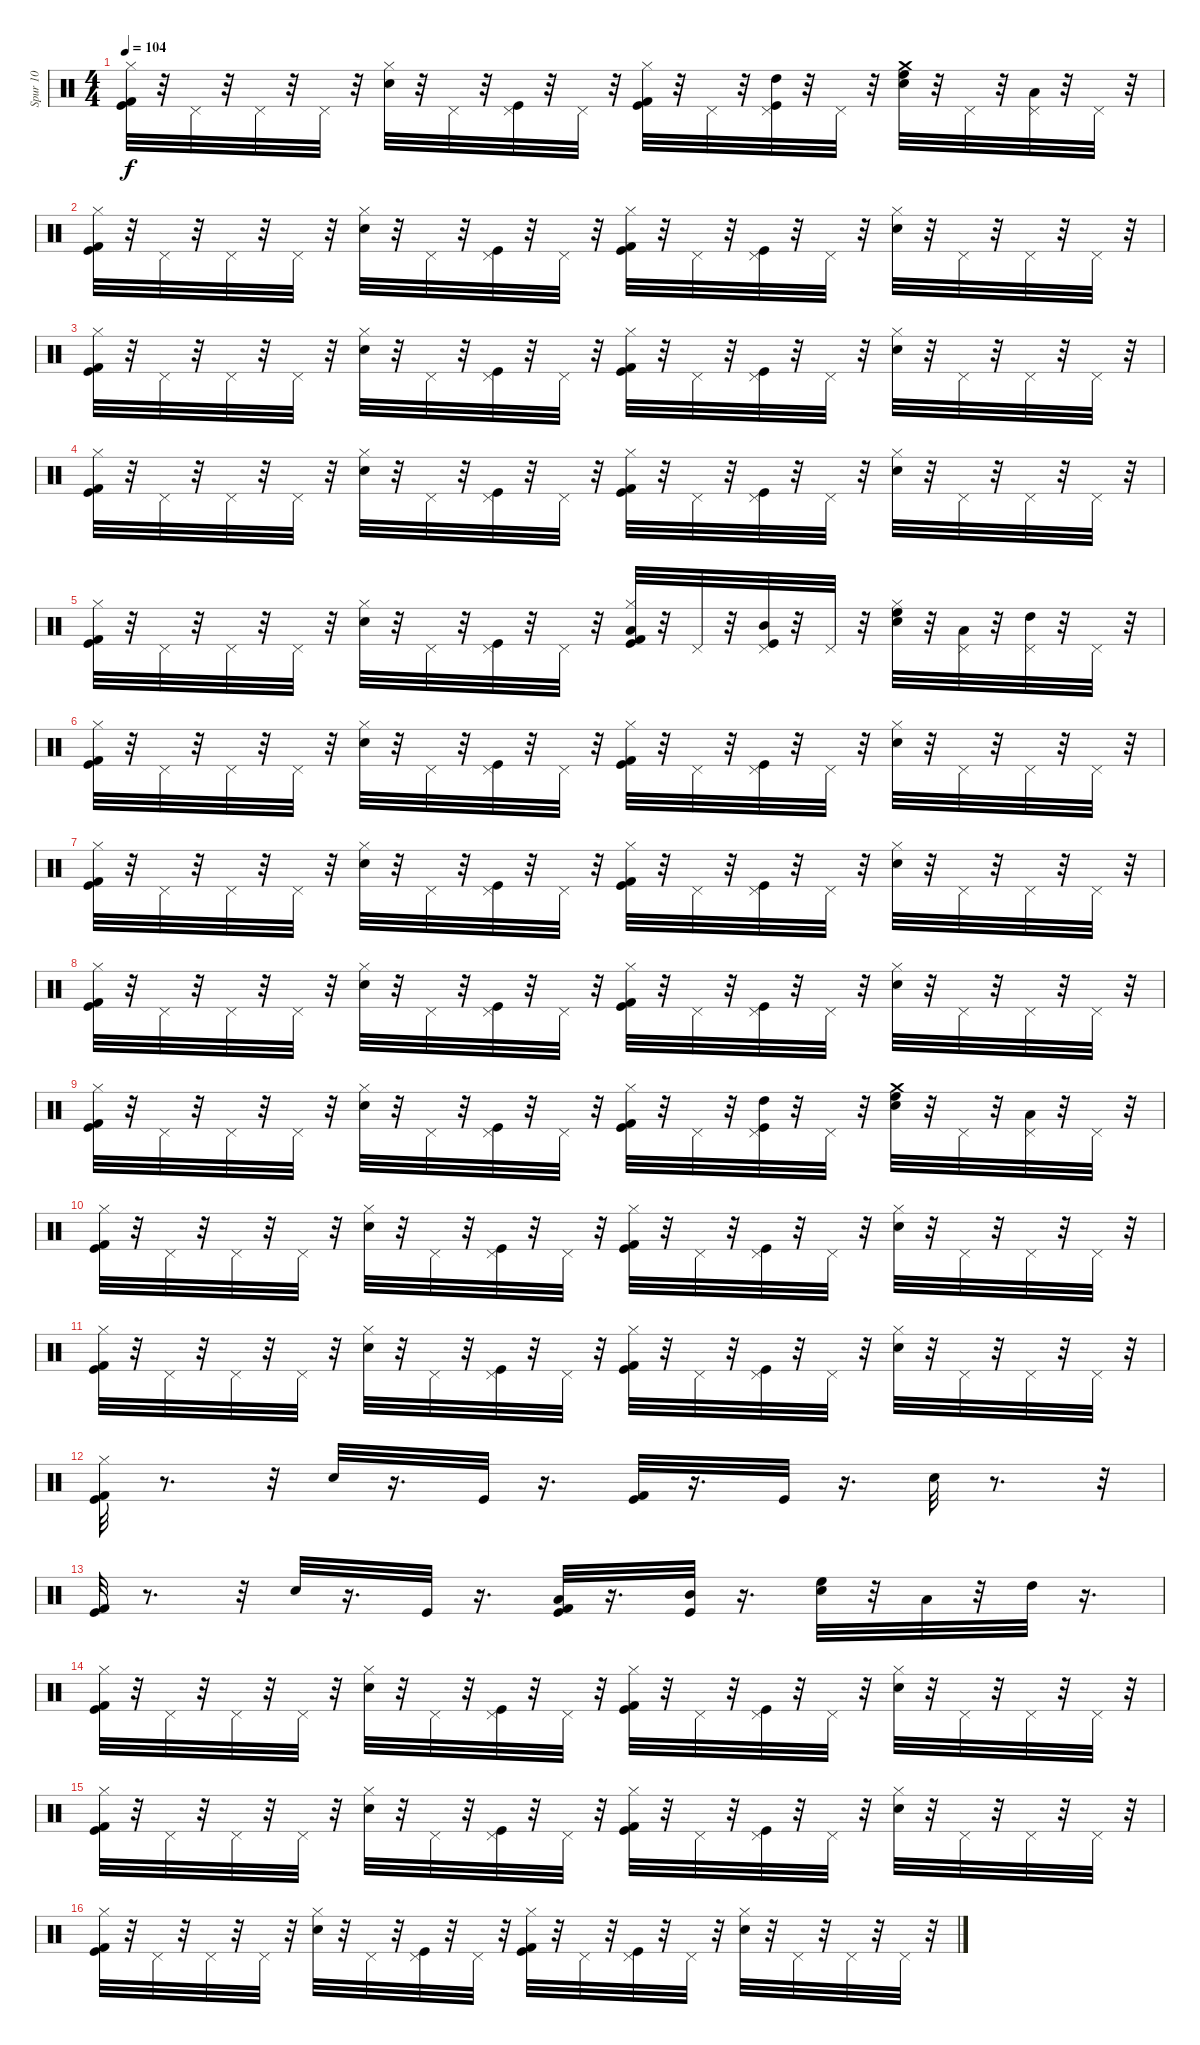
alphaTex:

\track ("Spur 10" "Spur 10") {instrument percussion}
\staff {score}
\articulation defaults
\ts (4 4)
\tempo 104
\clef neutral
\ks c
("Kick (hit) 2" "Kick (hit)" "Hi-Hat (closed)").32{dy f} r.32 "Pedal Hi-Hat (hit)".32 r.32 "Pedal Hi-Hat (hit)".32 r.32 "Pedal Hi-Hat (hit)".32 r.32 ("Electric Snare (hit)" "Hi-Hat (closed)").32 r.32 "Pedal Hi-Hat (hit)".32 r.32 ("Kick (hit)" "Pedal Hi-Hat (hit)").32 r.32 "Pedal Hi-Hat (hit)".32 r.32 ("Hi-Hat (closed)" "Kick (hit) 2" "Kick (hit)").32 r.32 "Pedal Hi-Hat (hit)".32 r.32 ("Kick (hit)" "Pedal Hi-Hat (hit)" "High Tom (hit)").32 r.32 "Pedal Hi-Hat (hit)".32 r.32 ("High Floor Tom (hit)" "Crash medium (hit)" "Electric Snare (hit)").32 r.32 "Pedal Hi-Hat (hit)".32 r.32 ("Low Tom (hit)" "Pedal Hi-Hat (hit)").32 r.32 "Pedal Hi-Hat (hit)".32 r.32 |
("Hi-Hat (closed)" "Kick (hit)" "Kick (hit) 2").32 r.32 "Pedal Hi-Hat (hit)".32 r.32 "Pedal Hi-Hat (hit)".32 r.32 "Pedal Hi-Hat (hit)".32 r.32 ("Hi-Hat (closed)" "Electric Snare (hit)").32 r.32 "Pedal Hi-Hat (hit)".32 r.32 ("Pedal Hi-Hat (hit)" "Kick (hit)").32 r.32 "Pedal Hi-Hat (hit)".32 r.32 ("Kick (hit) 2" "Kick (hit)" "Hi-Hat (closed)").32 r.32 "Pedal Hi-Hat (hit)".32 r.32 ("Pedal Hi-Hat (hit)" "Kick (hit)").32 r.32 "Pedal Hi-Hat (hit)".32 r.32 ("Hi-Hat (closed)" "Electric Snare (hit)").32 r.32 "Pedal Hi-Hat (hit)".32 r.32 "Pedal Hi-Hat (hit)".32 r.32 "Pedal Hi-Hat (hit)".32 r.32 |
("Kick (hit) 2" "Kick (hit)" "Hi-Hat (closed)").32 r.32 "Pedal Hi-Hat (hit)".32 r.32 "Pedal Hi-Hat (hit)".32 r.32 "Pedal Hi-Hat (hit)".32 r.32 ("Electric Snare (hit)" "Hi-Hat (closed)").32 r.32 "Pedal Hi-Hat (hit)".32 r.32 ("Kick (hit)" "Pedal Hi-Hat (hit)").32 r.32 "Pedal Hi-Hat (hit)".32 r.32 ("Hi-Hat (closed)" "Kick (hit) 2" "Kick (hit)").32 r.32 "Pedal Hi-Hat (hit)".32 r.32 ("Kick (hit)" "Pedal Hi-Hat (hit)").32 r.32 "Pedal Hi-Hat (hit)".32 r.32 ("Hi-Hat (closed)" "Electric Snare (hit)").32 r.32 "Pedal Hi-Hat (hit)".32 r.32 "Pedal Hi-Hat (hit)".32 r.32 "Pedal Hi-Hat (hit)".32 r.32 |
("Hi-Hat (closed)" "Kick (hit) 2" "Kick (hit)").32 r.32 "Pedal Hi-Hat (hit)".32 r.32 "Pedal Hi-Hat (hit)".32 r.32 "Pedal Hi-Hat (hit)".32 r.32 ("Hi-Hat (closed)" "Electric Snare (hit)").32 r.32 "Pedal Hi-Hat (hit)".32 r.32 ("Pedal Hi-Hat (hit)" "Kick (hit)").32 r.32 "Pedal Hi-Hat (hit)".32 r.32 ("Kick (hit) 2" "Kick (hit)" "Hi-Hat (closed)").32 r.32 "Pedal Hi-Hat (hit)".32 r.32 ("Pedal Hi-Hat (hit)" "Kick (hit)").32 r.32 "Pedal Hi-Hat (hit)".32 r.32 ("Hi-Hat (closed)" "Electric Snare (hit)").32 r.32 "Pedal Hi-Hat (hit)".32 r.32 "Pedal Hi-Hat (hit)".32 r.32 "Pedal Hi-Hat (hit)".32 r.32 |
("Kick (hit) 2" "Kick (hit)" "Hi-Hat (closed)").32 r.32 "Pedal Hi-Hat (hit)".32 r.32 "Pedal Hi-Hat (hit)".32 r.32 "Pedal Hi-Hat (hit)".32 r.32 ("Electric Snare (hit)" "Hi-Hat (closed)").32 r.32 "Pedal Hi-Hat (hit)".32 r.32 ("Kick (hit)" "Pedal Hi-Hat (hit)").32 r.32 "Pedal Hi-Hat (hit)".32 r.32 ("Low Tom (hit)" "Hi-Hat (closed)" "Kick (hit) 2" "Kick (hit)").32 r.32 "Pedal Hi-Hat (hit)".32 r.32 ("Kick (hit)" "Pedal Hi-Hat (hit)" "Mid Tom (hit)").32 r.32 "Pedal Hi-Hat (hit)".32 r.32 ("Hi-Hat (closed)" "Electric Snare (hit)" "High Floor Tom (hit)").32 r.32 ("Low Tom (hit)" "Pedal Hi-Hat (hit)").32 r.32 ("Pedal Hi-Hat (hit)" "High Tom (hit)").32 r.32 "Pedal Hi-Hat (hit)".32 r.32 |
("Kick (hit) 2" "Kick (hit)" "Hi-Hat (closed)").32 r.32 "Pedal Hi-Hat (hit)".32 r.32 "Pedal Hi-Hat (hit)".32 r.32 "Pedal Hi-Hat (hit)".32 r.32 ("Hi-Hat (closed)" "Electric Snare (hit)").32 r.32 "Pedal Hi-Hat (hit)".32 r.32 ("Pedal Hi-Hat (hit)" "Kick (hit)").32 r.32 "Pedal Hi-Hat (hit)".32 r.32 ("Kick (hit) 2" "Kick (hit)" "Hi-Hat (closed)").32 r.32 "Pedal Hi-Hat (hit)".32 r.32 ("Pedal Hi-Hat (hit)" "Kick (hit)").32 r.32 "Pedal Hi-Hat (hit)".32 r.32 ("Hi-Hat (closed)" "Electric Snare (hit)").32 r.32 "Pedal Hi-Hat (hit)".32 r.32 "Pedal Hi-Hat (hit)".32 r.32 "Pedal Hi-Hat (hit)".32 r.32 |
("Kick (hit) 2" "Kick (hit)" "Hi-Hat (closed)").32 r.32 "Pedal Hi-Hat (hit)".32 r.32 "Pedal Hi-Hat (hit)".32 r.32 "Pedal Hi-Hat (hit)".32 r.32 ("Electric Snare (hit)" "Hi-Hat (closed)").32 r.32 "Pedal Hi-Hat (hit)".32 r.32 ("Kick (hit)" "Pedal Hi-Hat (hit)").32 r.32 "Pedal Hi-Hat (hit)".32 r.32 ("Hi-Hat (closed)" "Kick (hit) 2" "Kick (hit)").32 r.32 "Pedal Hi-Hat (hit)".32 r.32 ("Kick (hit)" "Pedal Hi-Hat (hit)").32 r.32 "Pedal Hi-Hat (hit)".32 r.32 ("Hi-Hat (closed)" "Electric Snare (hit)").32 r.32 "Pedal Hi-Hat (hit)".32 r.32 "Pedal Hi-Hat (hit)".32 r.32 "Pedal Hi-Hat (hit)".32 r.32 |
("Hi-Hat (closed)" "Kick (hit) 2" "Kick (hit)").32 r.32 "Pedal Hi-Hat (hit)".32 r.32 "Pedal Hi-Hat (hit)".32 r.32 "Pedal Hi-Hat (hit)".32 r.32 ("Hi-Hat (closed)" "Electric Snare (hit)").32 r.32 "Pedal Hi-Hat (hit)".32 r.32 ("Pedal Hi-Hat (hit)" "Kick (hit)").32 r.32 "Pedal Hi-Hat (hit)".32 r.32 ("Kick (hit) 2" "Kick (hit)" "Hi-Hat (closed)").32 r.32 "Pedal Hi-Hat (hit)".32 r.32 ("Pedal Hi-Hat (hit)" "Kick (hit)").32 r.32 "Pedal Hi-Hat (hit)".32 r.32 ("Hi-Hat (closed)" "Electric Snare (hit)").32 r.32 "Pedal Hi-Hat (hit)".32 r.32 "Pedal Hi-Hat (hit)".32 r.32 "Pedal Hi-Hat (hit)".32 r.32 |
("Kick (hit) 2" "Kick (hit)" "Hi-Hat (closed)").32 r.32 "Pedal Hi-Hat (hit)".32 r.32 "Pedal Hi-Hat (hit)".32 r.32 "Pedal Hi-Hat (hit)".32 r.32 ("Electric Snare (hit)" "Hi-Hat (closed)").32 r.32 "Pedal Hi-Hat (hit)".32 r.32 ("Kick (hit)" "Pedal Hi-Hat (hit)").32 r.32 "Pedal Hi-Hat (hit)".32 r.32 ("Hi-Hat (closed)" "Kick (hit) 2" "Kick (hit)").32 r.32 "Pedal Hi-Hat (hit)".32 r.32 ("Kick (hit)" "Pedal Hi-Hat (hit)" "High Tom (hit)").32 r.32 "Pedal Hi-Hat (hit)".32 r.32 ("High Floor Tom (hit)" "Crash medium (hit)" "Electric Snare (hit)").32 r.32 "Pedal Hi-Hat (hit)".32 r.32 ("Low Tom (hit)" "Pedal Hi-Hat (hit)").32 r.32 "Pedal Hi-Hat (hit)".32 r.32 |
("Hi-Hat (closed)" "Kick (hit)" "Kick (hit) 2").32 r.32 "Pedal Hi-Hat (hit)".32 r.32 "Pedal Hi-Hat (hit)".32 r.32 "Pedal Hi-Hat (hit)".32 r.32 ("Hi-Hat (closed)" "Electric Snare (hit)").32 r.32 "Pedal Hi-Hat (hit)".32 r.32 ("Pedal Hi-Hat (hit)" "Kick (hit)").32 r.32 "Pedal Hi-Hat (hit)".32 r.32 ("Kick (hit) 2" "Kick (hit)" "Hi-Hat (closed)").32 r.32 "Pedal Hi-Hat (hit)".32 r.32 ("Pedal Hi-Hat (hit)" "Kick (hit)").32 r.32 "Pedal Hi-Hat (hit)".32 r.32 ("Hi-Hat (closed)" "Electric Snare (hit)").32 r.32 "Pedal Hi-Hat (hit)".32 r.32 "Pedal Hi-Hat (hit)".32 r.32 "Pedal Hi-Hat (hit)".32 r.32 |
("Kick (hit) 2" "Kick (hit)" "Hi-Hat (closed)").32 r.32 "Pedal Hi-Hat (hit)".32 r.32 "Pedal Hi-Hat (hit)".32 r.32 "Pedal Hi-Hat (hit)".32 r.32 ("Electric Snare (hit)" "Hi-Hat (closed)").32 r.32 "Pedal Hi-Hat (hit)".32 r.32 ("Kick (hit)" "Pedal Hi-Hat (hit)").32 r.32 "Pedal Hi-Hat (hit)".32 r.32 ("Hi-Hat (closed)" "Kick (hit) 2" "Kick (hit)").32 r.32 "Pedal Hi-Hat (hit)".32 r.32 ("Kick (hit)" "Pedal Hi-Hat (hit)").32 r.32 "Pedal Hi-Hat (hit)".32 r.32 ("Hi-Hat (closed)" "Electric Snare (hit)").32 r.32 "Pedal Hi-Hat (hit)".32 r.32 "Pedal Hi-Hat (hit)".32 r.32 "Pedal Hi-Hat (hit)".32 r.32 |
("Hi-Hat (closed)" "Kick (hit) 2" "Kick (hit)").32 r.8{d} r.32 "Electric Snare (hit)".32 r.16{d} "Kick (hit)".32 r.16{d} ("Kick (hit) 2" "Kick (hit)").32 r.16{d} "Kick (hit)".32 r.16{d} "Electric Snare (hit)".32 r.8{d} r.32 |
("Kick (hit) 2" "Kick (hit)").32 r.8{d} r.32 "Electric Snare (hit)".32 r.16{d} "Kick (hit)".32 r.16{d} ("Low Tom (hit)" "Kick (hit) 2" "Kick (hit)").32 r.16{d} ("Kick (hit)" "Mid Tom (hit)").32 r.16{d} ("Electric Snare (hit)" "High Floor Tom (hit)").32 r.32 "Low Tom (hit)".32 r.32 "High Tom (hit)".32 r.16{d} |
("Kick (hit) 2" "Kick (hit)" "Hi-Hat (closed)").32 r.32 "Pedal Hi-Hat (hit)".32 r.32 "Pedal Hi-Hat (hit)".32 r.32 "Pedal Hi-Hat (hit)".32 r.32 ("Hi-Hat (closed)" "Electric Snare (hit)").32 r.32 "Pedal Hi-Hat (hit)".32 r.32 ("Pedal Hi-Hat (hit)" "Kick (hit)").32 r.32 "Pedal Hi-Hat (hit)".32 r.32 ("Kick (hit) 2" "Kick (hit)" "Hi-Hat (closed)").32 r.32 "Pedal Hi-Hat (hit)".32 r.32 ("Pedal Hi-Hat (hit)" "Kick (hit)").32 r.32 "Pedal Hi-Hat (hit)".32 r.32 ("Hi-Hat (closed)" "Electric Snare (hit)").32 r.32 "Pedal Hi-Hat (hit)".32 r.32 "Pedal Hi-Hat (hit)".32 r.32 "Pedal Hi-Hat (hit)".32 r.32 |
("Kick (hit) 2" "Kick (hit)" "Hi-Hat (closed)").32 r.32 "Pedal Hi-Hat (hit)".32 r.32 "Pedal Hi-Hat (hit)".32 r.32 "Pedal Hi-Hat (hit)".32 r.32 ("Electric Snare (hit)" "Hi-Hat (closed)").32 r.32 "Pedal Hi-Hat (hit)".32 r.32 ("Kick (hit)" "Pedal Hi-Hat (hit)").32 r.32 "Pedal Hi-Hat (hit)".32 r.32 ("Hi-Hat (closed)" "Kick (hit) 2" "Kick (hit)").32 r.32 "Pedal Hi-Hat (hit)".32 r.32 ("Kick (hit)" "Pedal Hi-Hat (hit)").32 r.32 "Pedal Hi-Hat (hit)".32 r.32 ("Hi-Hat (closed)" "Electric Snare (hit)").32 r.32 "Pedal Hi-Hat (hit)".32 r.32 "Pedal Hi-Hat (hit)".32 r.32 "Pedal Hi-Hat (hit)".32 r.32 |
("Hi-Hat (closed)" "Kick (hit) 2" "Kick (hit)").32 r.32 "Pedal Hi-Hat (hit)".32 r.32 "Pedal Hi-Hat (hit)".32 r.32 "Pedal Hi-Hat (hit)".32 r.32 ("Hi-Hat (closed)" "Electric Snare (hit)").32 r.32 "Pedal Hi-Hat (hit)".32 r.32 ("Pedal Hi-Hat (hit)" "Kick (hit)").32 r.32 "Pedal Hi-Hat (hit)".32 r.32 ("Kick (hit) 2" "Kick (hit)" "Hi-Hat (closed)").32 r.32 "Pedal Hi-Hat (hit)".32 r.32 ("Pedal Hi-Hat (hit)" "Kick (hit)").32 r.32 "Pedal Hi-Hat (hit)".32 r.32 ("Hi-Hat (closed)" "Electric Snare (hit)").32 r.32 "Pedal Hi-Hat (hit)".32 r.32 "Pedal Hi-Hat (hit)".32 r.32 "Pedal Hi-Hat (hit)".32 r.32
